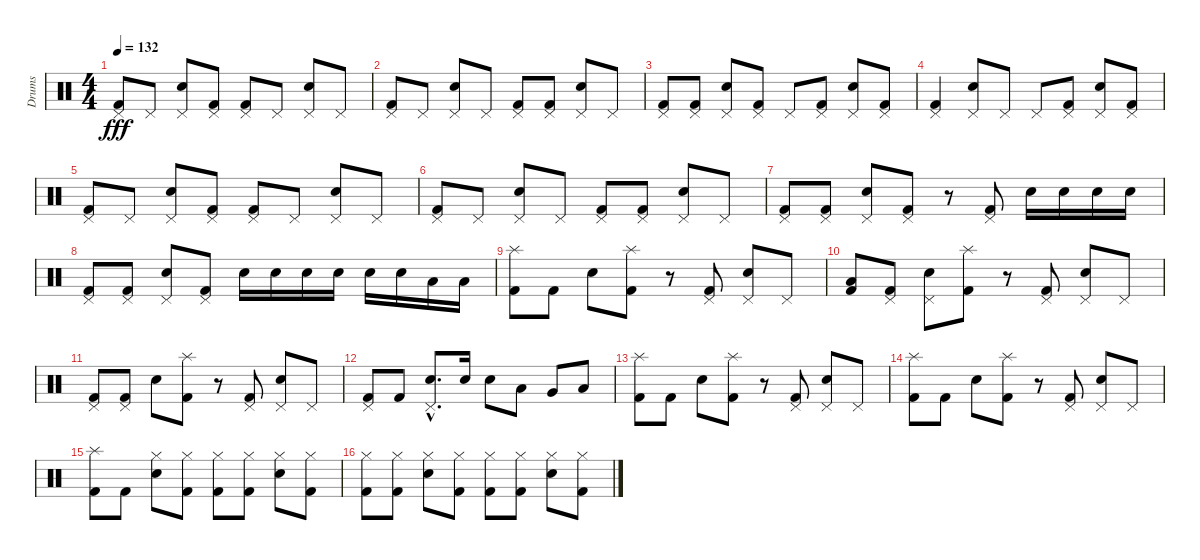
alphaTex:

\track ("Drums" "Drums") {instrument percussion}
\staff {score}
\articulation defaults
\ts (4 4)
\tempo 132
\clef neutral
\ks c
("Kick (hit) 2" "Pedal Hi-Hat (hit)").8{dy fff} "Pedal Hi-Hat (hit)".8 ("Electric Snare (hit)" "Pedal Hi-Hat (hit)").8 ("Pedal Hi-Hat (hit)" "Kick (hit) 2").8 ("Kick (hit) 2" "Pedal Hi-Hat (hit)").8 "Pedal Hi-Hat (hit)".8 ("Electric Snare (hit)" "Pedal Hi-Hat (hit)").8 "Pedal Hi-Hat (hit)".8 |
("Kick (hit) 2" "Pedal Hi-Hat (hit)").8 "Pedal Hi-Hat (hit)".8 ("Electric Snare (hit)" "Pedal Hi-Hat (hit)").8 "Pedal Hi-Hat (hit)".8 ("Kick (hit) 2" "Pedal Hi-Hat (hit)").8 ("Pedal Hi-Hat (hit)" "Kick (hit) 2").8 ("Electric Snare (hit)" "Pedal Hi-Hat (hit)").8 "Pedal Hi-Hat (hit)".8 |
("Kick (hit) 2" "Pedal Hi-Hat (hit)").8 ("Kick (hit) 2" "Pedal Hi-Hat (hit)").8 ("Electric Snare (hit)" "Pedal Hi-Hat (hit)").8 ("Kick (hit) 2" "Pedal Hi-Hat (hit)").8 "Pedal Hi-Hat (hit)".8 ("Kick (hit) 2" "Pedal Hi-Hat (hit)").8 ("Electric Snare (hit)" "Pedal Hi-Hat (hit)").8 ("Kick (hit) 2" "Pedal Hi-Hat (hit)").8 |
("Kick (hit) 2" "Pedal Hi-Hat (hit)").4 ("Electric Snare (hit)" "Pedal Hi-Hat (hit)").8 "Pedal Hi-Hat (hit)".8 "Pedal Hi-Hat (hit)".8 ("Kick (hit) 2" "Pedal Hi-Hat (hit)").8 ("Electric Snare (hit)" "Pedal Hi-Hat (hit)").8 ("Kick (hit) 2" "Pedal Hi-Hat (hit)").8 |
("Kick (hit) 2" "Pedal Hi-Hat (hit)").8 "Pedal Hi-Hat (hit)".8 ("Electric Snare (hit)" "Pedal Hi-Hat (hit)").8 ("Kick (hit) 2" "Pedal Hi-Hat (hit)").8 ("Kick (hit) 2" "Pedal Hi-Hat (hit)").8 "Pedal Hi-Hat (hit)".8 ("Electric Snare (hit)" "Pedal Hi-Hat (hit)").8 "Pedal Hi-Hat (hit)".8 |
("Kick (hit) 2" "Pedal Hi-Hat (hit)").8 "Pedal Hi-Hat (hit)".8 ("Electric Snare (hit)" "Pedal Hi-Hat (hit)").8 "Pedal Hi-Hat (hit)".8 ("Kick (hit) 2" "Pedal Hi-Hat (hit)").8 ("Kick (hit) 2" "Pedal Hi-Hat (hit)").8 ("Electric Snare (hit)" "Pedal Hi-Hat (hit)").8 "Pedal Hi-Hat (hit)".8 |
("Kick (hit) 2" "Pedal Hi-Hat (hit)").8 ("Pedal Hi-Hat (hit)" "Kick (hit) 2").8 ("Electric Snare (hit)" "Pedal Hi-Hat (hit)").8 ("Kick (hit) 2" "Pedal Hi-Hat (hit)").8 r.8 ("Pedal Hi-Hat (hit)" "Kick (hit) 2").8 "Electric Snare (hit)".16 "Electric Snare (hit)".16 "Electric Snare (hit)".16 "Electric Snare (hit)".16 |
("Kick (hit) 2" "Pedal Hi-Hat (hit)").8 ("Kick (hit) 2" "Pedal Hi-Hat (hit)").8 ("Electric Snare (hit)" "Pedal Hi-Hat (hit)").8 ("Kick (hit) 2" "Pedal Hi-Hat (hit)").8 "Electric Snare (hit)".16 "Electric Snare (hit)".16 "Electric Snare (hit)".16 "Electric Snare (hit)".16 "Electric Snare (hit)".16 "Electric Snare (hit)".16 "Low Tom (hit)".16 "Low Tom (hit)".16 |
("Kick (hit) 2" "Splash (hit)").8 "Kick (hit) 2".8 "Electric Snare (hit)".8 ("Splash (hit)" "Kick (hit) 2").8 r.8 ("Kick (hit) 2" "Pedal Hi-Hat (hit)").8 ("Electric Snare (hit)" "Pedal Hi-Hat (hit)").8 "Pedal Hi-Hat (hit)".8 |
("Kick (hit) 2" "Low Tom (hit)").8 ("Pedal Hi-Hat (hit)" "Kick (hit) 2").8 ("Pedal Hi-Hat (hit)" "Electric Snare (hit)").8 ("Splash (hit)" "Kick (hit) 2").8 r.8 ("Kick (hit) 2" "Pedal Hi-Hat (hit)").8 ("Electric Snare (hit)" "Pedal Hi-Hat (hit)").8 "Pedal Hi-Hat (hit)".8 |
("Kick (hit) 2" "Pedal Hi-Hat (hit)").8 ("Pedal Hi-Hat (hit)" "Kick (hit) 2").8 "Electric Snare (hit)".8 ("Splash (hit)" "Kick (hit) 2").8 r.8 ("Kick (hit) 2" "Pedal Hi-Hat (hit)").8 ("Electric Snare (hit)" "Pedal Hi-Hat (hit)").8 "Pedal Hi-Hat (hit)".8 |
("Pedal Hi-Hat (hit)" "Kick (hit) 2").8 "Kick (hit) 2".8 ("Pedal Hi-Hat (hit)" "Electric Snare (hit)"{hac}).8{d} "Electric Snare (hit)".16 "Electric Snare (hit)".8 "Low Tom (hit)".8 "Very Low Tom (hit)".8 "Low Floor Tom (hit)".8 |
("Kick (hit) 2" "Splash (hit)").8 "Kick (hit) 2".8 "Electric Snare (hit)".8 ("Splash (hit)" "Kick (hit) 2").8 r.8 ("Kick (hit) 2" "Pedal Hi-Hat (hit)").8 ("Electric Snare (hit)" "Pedal Hi-Hat (hit)").8 "Pedal Hi-Hat (hit)".8 |
("Kick (hit) 2" "Splash (hit)").8 "Kick (hit) 2".8 "Electric Snare (hit)".8 ("Splash (hit)" "Kick (hit) 2").8 r.8 ("Kick (hit) 2" "Pedal Hi-Hat (hit)").8 ("Electric Snare (hit)" "Pedal Hi-Hat (hit)").8 "Pedal Hi-Hat (hit)".8 |
("Splash (hit)" "Kick (hit) 2").8 "Kick (hit) 2".8 ("Hi-Hat (closed)" "Electric Snare (hit)").8 ("Hi-Hat (closed)" "Kick (hit) 2").8 ("Hi-Hat (closed)" "Kick (hit) 2").8 ("Hi-Hat (closed)" "Kick (hit) 2").8 ("Hi-Hat (closed)" "Electric Snare (hit)").8 ("Hi-Hat (closed)" "Kick (hit) 2").8 |
("Hi-Hat (closed)" "Kick (hit) 2").8 ("Hi-Hat (closed)" "Kick (hit) 2").8 ("Hi-Hat (closed)" "Electric Snare (hit)").8 ("Hi-Hat (closed)" "Kick (hit) 2").8 ("Hi-Hat (closed)" "Kick (hit) 2").8 ("Hi-Hat (closed)" "Kick (hit) 2").8 ("Hi-Hat (closed)" "Electric Snare (hit)").8 ("Hi-Hat (closed)" "Kick (hit) 2").8
